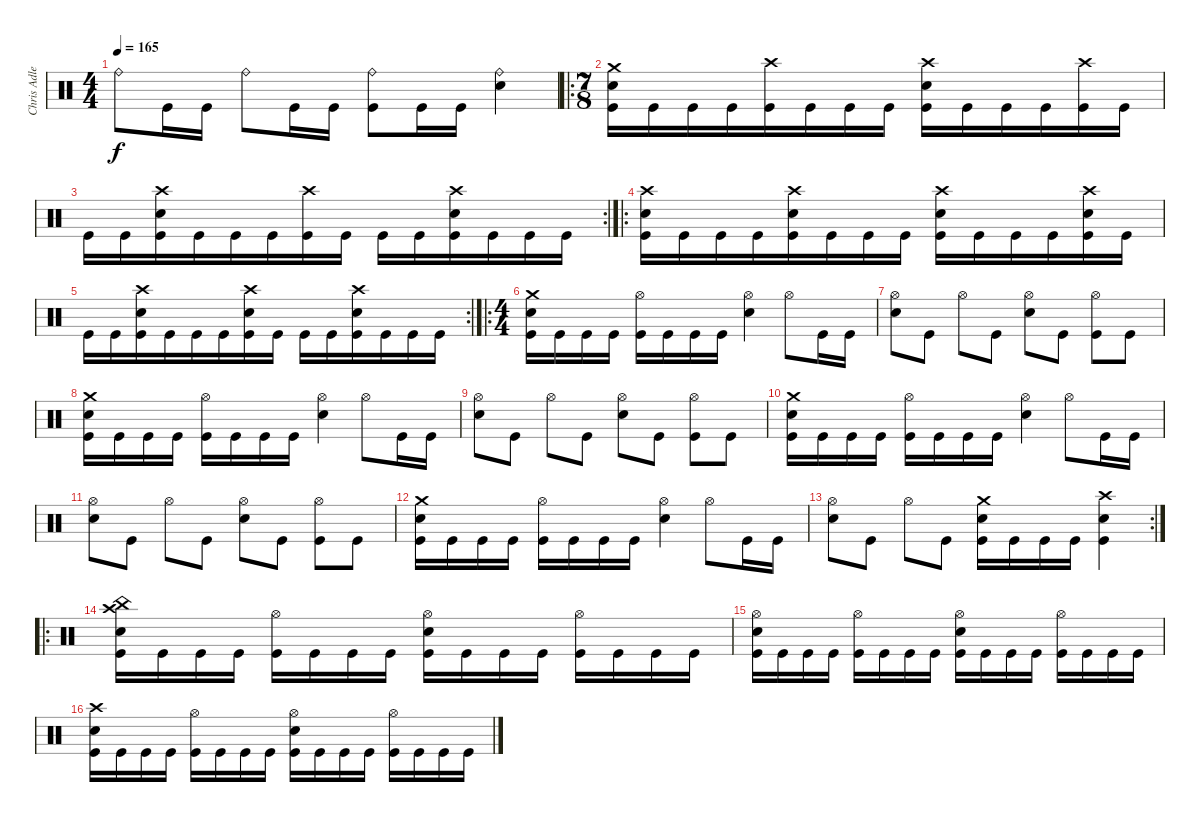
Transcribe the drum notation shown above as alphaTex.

\track ("Chris Adler" "Chris Adle") {instrument percussion}
\staff {score}
\articulation defaults
\ts (4 4)
\tempo 165
\clef neutral
\ks c "Ride (bell)".8{dy f} "Kick (hit)".16 "Kick (hit)".16 "Ride (bell)".8 "Kick (hit)".16 "Kick (hit)".16
("Ride (bell)" "Kick (hit)").8 "Kick (hit)".16 "Kick (hit)".16 ("Ride (bell)" "Electric Snare (hit)").4 |
\ro
\ts (7 8)
("Crash medium (hit)" "Electric Snare (hit)" "Kick (hit)").16 "Kick (hit)".16 "Kick (hit)".16 "Kick (hit)".16 ("Crash high (hit)" "Kick (hit)").16 "Kick (hit)".16 "Kick (hit)".16 "Kick (hit)".16 ("Crash high (hit)" "Electric Snare (hit)" "Kick (hit)").16 "Kick (hit)".16 "Kick (hit)".16 "Kick (hit)".16 ("Crash high (hit)" "Kick (hit)").16 "Kick (hit)".16 |
\rc 2 "Kick (hit)".16 "Kick (hit)".16
("Crash high (hit)" "Electric Snare (hit)" "Kick (hit)").16 "Kick (hit)".16 "Kick (hit)".16 "Kick (hit)".16 ("Crash high (hit)" "Kick (hit)").16 "Kick (hit)".16 "Kick (hit)".16 "Kick (hit)".16 ("Crash high (hit)" "Electric Snare (hit)" "Kick (hit)").16 "Kick (hit)".16 "Kick (hit)".16 "Kick (hit)".16 |
\ro
("Crash high (hit)" "Electric Snare (hit)" "Kick (hit)").16 "Kick (hit)".16 "Kick (hit)".16 "Kick (hit)".16 ("Crash high (hit)" "Electric Snare (hit)" "Kick (hit)").16 "Kick (hit)".16 "Kick (hit)".16 "Kick (hit)".16 ("Crash high (hit)" "Electric Snare (hit)" "Kick (hit)").16 "Kick (hit)".16 "Kick (hit)".16 "Kick (hit)".16 ("Crash high (hit)" "Electric Snare (hit)" "Kick (hit)").16 "Kick (hit)".16 |
\rc 2 "Kick (hit)".16 "Kick (hit)".16
("Crash high (hit)" "Electric Snare (hit)" "Kick (hit)").16 "Kick (hit)".16 "Kick (hit)".16 "Kick (hit)".16 ("Crash high (hit)" "Electric Snare (hit)" "Kick (hit)").16 "Kick (hit)".16 "Kick (hit)".16 "Kick (hit)".16 ("Crash high (hit)" "Electric Snare (hit)" "Kick (hit)").16 "Kick (hit)".16 "Kick (hit)".16 "Kick (hit)".16 |
\ro
\ts (4 4)
("Crash medium (hit)" "Electric Snare (hit)" "Kick (hit)").16 "Kick (hit)".16 "Kick (hit)".16 "Kick (hit)".16 ("Hi-Hat (open)" "Kick (hit)").16 "Kick (hit)".16 "Kick (hit)".16 "Kick (hit)".16 ("Hi-Hat (open)" "Electric Snare (hit)").4 "Hi-Hat (open)".8 "Kick (hit)".16 "Kick (hit)".16 |
("Hi-Hat (open)" "Electric Snare (hit)").8 "Kick (hit)".8 "Hi-Hat (open)".8 "Kick (hit)".8 ("Hi-Hat (open)" "Electric Snare (hit)").8 "Kick (hit)".8 ("Hi-Hat (open)" "Kick (hit)").8 "Kick (hit)".8 |
("Crash medium (hit)" "Electric Snare (hit)" "Kick (hit)").16 "Kick (hit)".16 "Kick (hit)".16 "Kick (hit)".16 ("Hi-Hat (open)" "Kick (hit)").16 "Kick (hit)".16 "Kick (hit)".16 "Kick (hit)".16 ("Hi-Hat (open)" "Electric Snare (hit)").4 "Hi-Hat (open)".8 "Kick (hit)".16 "Kick (hit)".16 |
("Hi-Hat (open)" "Electric Snare (hit)").8 "Kick (hit)".8 "Hi-Hat (open)".8 "Kick (hit)".8 ("Hi-Hat (open)" "Electric Snare (hit)").8 "Kick (hit)".8 ("Hi-Hat (open)" "Kick (hit)").8 "Kick (hit)".8 |
("Crash medium (hit)" "Electric Snare (hit)" "Kick (hit)").16 "Kick (hit)".16 "Kick (hit)".16 "Kick (hit)".16 ("Hi-Hat (open)" "Kick (hit)").16 "Kick (hit)".16 "Kick (hit)".16 "Kick (hit)".16 ("Hi-Hat (open)" "Electric Snare (hit)").4 "Hi-Hat (open)".8 "Kick (hit)".16 "Kick (hit)".16 |
("Hi-Hat (open)" "Electric Snare (hit)").8 "Kick (hit)".8 "Hi-Hat (open)".8 "Kick (hit)".8 ("Hi-Hat (open)" "Electric Snare (hit)").8 "Kick (hit)".8 ("Hi-Hat (open)" "Kick (hit)").8 "Kick (hit)".8 |
("Crash medium (hit)" "Electric Snare (hit)" "Kick (hit)").16 "Kick (hit)".16 "Kick (hit)".16 "Kick (hit)".16 ("Hi-Hat (open)" "Kick (hit)").16 "Kick (hit)".16 "Kick (hit)".16 "Kick (hit)".16 ("Hi-Hat (open)" "Electric Snare (hit)").4 "Hi-Hat (open)".8 "Kick (hit)".16 "Kick (hit)".16 |
\rc 2
("Hi-Hat (open)" "Electric Snare (hit)").8 "Kick (hit)".8 "Hi-Hat (open)".8 "Kick (hit)".8 ("Crash medium (hit)" "Electric Snare (hit)" "Kick (hit)").16 "Kick (hit)".16 "Kick (hit)".16 "Kick (hit)".16 ("Crash high (hit)" "Electric Snare (hit)" "Kick (hit)").4 |
\ro
("Crash high (hit)" "China (hit)" "Electric Snare (hit)" "Kick (hit)").16 "Kick (hit)".16 "Kick (hit)".16 "Kick (hit)".16 ("Hi-Hat (open)" "Kick (hit)").16 "Kick (hit)".16 "Kick (hit)".16 "Kick (hit)".16 ("Hi-Hat (open)" "Electric Snare (hit)" "Kick (hit)").16 "Kick (hit)".16 "Kick (hit)".16 "Kick (hit)".16 ("Hi-Hat (open)" "Kick (hit)").16 "Kick (hit)".16 "Kick (hit)".16 "Kick (hit)".16 |
("Hi-Hat (open)" "Electric Snare (hit)" "Kick (hit)").16 "Kick (hit)".16 "Kick (hit)".16 "Kick (hit)".16 ("Hi-Hat (open)" "Kick (hit)").16 "Kick (hit)".16 "Kick (hit)".16 "Kick (hit)".16 ("Hi-Hat (open)" "Electric Snare (hit)" "Kick (hit)").16 "Kick (hit)".16 "Kick (hit)".16 "Kick (hit)".16 ("Hi-Hat (open)" "Kick (hit)").16 "Kick (hit)".16 "Kick (hit)".16 "Kick (hit)".16 |
("Crash high (hit)" "Electric Snare (hit)" "Kick (hit)").16 "Kick (hit)".16 "Kick (hit)".16 "Kick (hit)".16 ("Hi-Hat (open)" "Kick (hit)").16 "Kick (hit)".16 "Kick (hit)".16 "Kick (hit)".16 ("Hi-Hat (open)" "Electric Snare (hit)" "Kick (hit)").16 "Kick (hit)".16 "Kick (hit)".16 "Kick (hit)".16 ("Hi-Hat (open)" "Kick (hit)").16 "Kick (hit)".16 "Kick (hit)".16 "Kick (hit)".16
